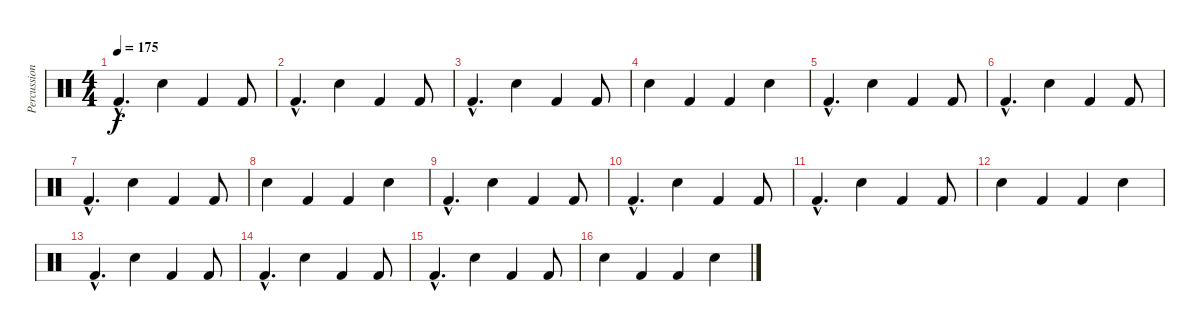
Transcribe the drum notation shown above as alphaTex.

\track ("Percussions" "Percussion") {instrument percussion}
\staff {score}
\articulation defaults
\ts (4 4)
\tempo 175
\clef neutral
\ks c "Kick (hit) 2"{hac}.4{d dy f} "Snare (hit) 2".4 "Kick (hit) 2".4 "Kick (hit) 2".8
|
"Kick (hit) 2"{hac}.4{d} "Snare (hit) 2".4 "Kick (hit) 2".4 "Kick (hit) 2".8 |
"Kick (hit) 2"{hac}.4{d} "Snare (hit) 2".4 "Kick (hit) 2".4 "Kick (hit) 2".8 |
"Snare (hit) 2".4 "Kick (hit) 2".4 "Kick (hit) 2".4 "Snare (hit) 2".4 |
"Kick (hit) 2"{hac}.4{d} "Snare (hit) 2".4 "Kick (hit) 2".4 "Kick (hit) 2".8 |
"Kick (hit) 2"{hac}.4{d} "Snare (hit) 2".4 "Kick (hit) 2".4 "Kick (hit) 2".8 |
"Kick (hit) 2"{hac}.4{d} "Snare (hit) 2".4 "Kick (hit) 2".4 "Kick (hit) 2".8 |
"Snare (hit) 2".4 "Kick (hit) 2".4 "Kick (hit) 2".4 "Snare (hit) 2".4 |
"Kick (hit) 2"{hac}.4{d} "Snare (hit) 2".4 "Kick (hit) 2".4 "Kick (hit) 2".8 |
"Kick (hit) 2"{hac}.4{d} "Snare (hit) 2".4 "Kick (hit) 2".4 "Kick (hit) 2".8 |
"Kick (hit) 2"{hac}.4{d} "Snare (hit) 2".4 "Kick (hit) 2".4 "Kick (hit) 2".8 |
"Snare (hit) 2".4 "Kick (hit) 2".4 "Kick (hit) 2".4 "Snare (hit) 2".4 |
"Kick (hit) 2"{hac}.4{d} "Snare (hit) 2".4 "Kick (hit) 2".4 "Kick (hit) 2".8 |
"Kick (hit) 2"{hac}.4{d} "Snare (hit) 2".4 "Kick (hit) 2".4 "Kick (hit) 2".8 |
"Kick (hit) 2"{hac}.4{d} "Snare (hit) 2".4 "Kick (hit) 2".4 "Kick (hit) 2".8 |
"Snare (hit) 2".4 "Kick (hit) 2".4 "Kick (hit) 2".4 "Snare (hit) 2".4
